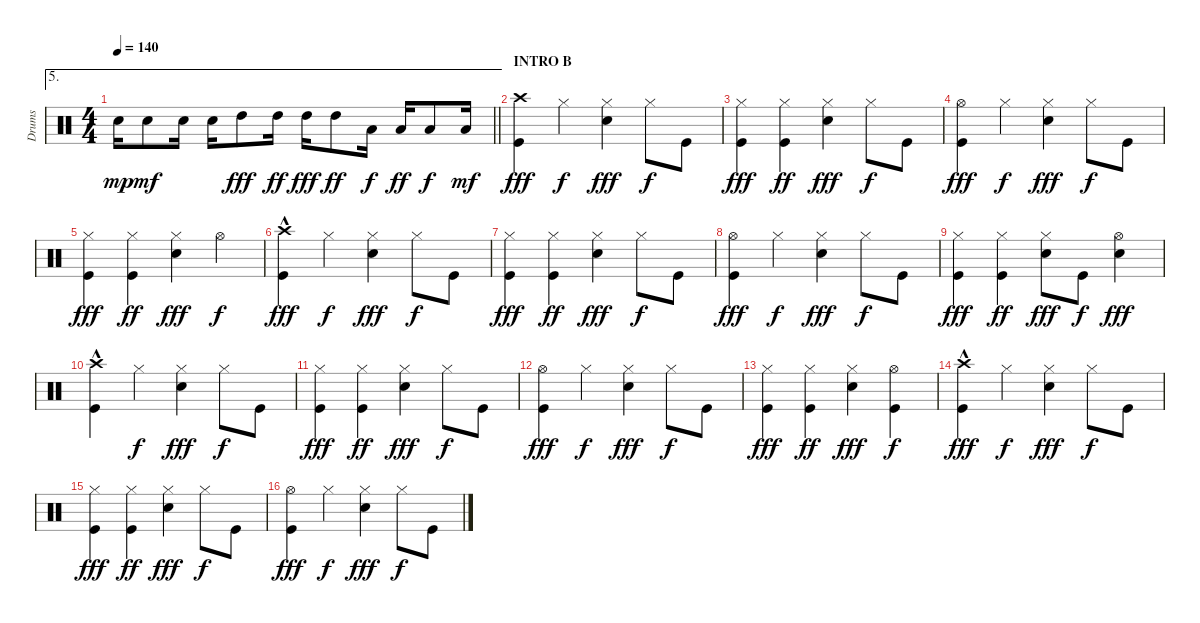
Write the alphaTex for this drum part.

\track ("Drums" "Drums") {instrument percussion}
\staff {score}
\articulation defaults
\ae 5
\ts (4 4)
\tempo 140
\clef neutral
\barLineRight lightlight
\ks c "Snare (hit) 2".16{dy mp} "Snare (hit) 2".8{dy mf} "Snare (hit) 2".16 "Snare (hit) 2".16 "High Tom (hit)".8{dy fff} "High Tom (hit)".16{dy ff} "High Tom (hit)".16{dy fff} "High Tom (hit)".8{dy ff} "Low Tom (hit)".16{dy f} "Low Tom (hit)".16{dy ff} "Low Floor Tom (hit)".8{dy f} "Low Floor Tom (hit)".16{dy mf}
|
\section ("" "INTRO B")
("Crash high (hit)" "Kick (hit)").4{dy fff} "Hi-Hat (closed)".4{dy f} ("Hi-Hat (closed)" "Snare (hit) 2").4{dy fff} "Hi-Hat (closed)".8{dy f} "Kick (hit)".8 |
("Hi-Hat (closed)" "Kick (hit)").4{dy fff} ("Hi-Hat (closed)" "Kick (hit)").4{dy ff} ("Hi-Hat (closed)" "Snare (hit) 2").4{dy fff} "Hi-Hat (closed)".8{dy f} "Kick (hit)".8 |
("Hi-Hat (open)" "Kick (hit)").4{dy fff} "Hi-Hat (closed)".4{dy f} ("Hi-Hat (closed)" "Snare (hit) 2").4{dy fff} "Hi-Hat (closed)".8{dy f} "Kick (hit)".8 |
("Hi-Hat (closed)" "Kick (hit)").4{dy fff} ("Hi-Hat (closed)" "Kick (hit)").4{dy ff} ("Hi-Hat (closed)" "Snare (hit) 2").4{dy fff} "Hi-Hat (open)".4{dy f} |
("Crash high (hit)" "Kick (hit)"{hac}).4{dy fff} "Hi-Hat (closed)".4{dy f} ("Hi-Hat (closed)" "Snare (hit) 2").4{dy fff} "Hi-Hat (closed)".8{dy f} "Kick (hit)".8 |
("Hi-Hat (closed)" "Kick (hit)").4{dy fff} ("Hi-Hat (closed)" "Kick (hit)").4{dy ff} ("Hi-Hat (closed)" "Snare (hit) 2").4{dy fff} "Hi-Hat (closed)".8{dy f} "Kick (hit)".8 |
("Hi-Hat (open)" "Kick (hit)").4{dy fff} "Hi-Hat (closed)".4{dy f} ("Hi-Hat (closed)" "Snare (hit) 2").4{dy fff} "Hi-Hat (closed)".8{dy f} "Kick (hit)".8 |
("Hi-Hat (closed)" "Kick (hit)").4{dy fff} ("Hi-Hat (closed)" "Kick (hit)").4{dy ff} ("Hi-Hat (closed)" "Snare (hit) 2").8{dy fff} "Kick (hit)".8{dy f} ("Hi-Hat (open)" "Snare (hit) 2").4{dy fff} |
("Crash high (hit)" "Kick (hit)"{hac}).4 "Hi-Hat (closed)".4{dy f} ("Hi-Hat (closed)" "Snare (hit) 2").4{dy fff} "Hi-Hat (closed)".8{dy f} "Kick (hit)".8 |
("Hi-Hat (closed)" "Kick (hit)").4{dy fff} ("Hi-Hat (closed)" "Kick (hit)").4{dy ff} ("Hi-Hat (closed)" "Snare (hit) 2").4{dy fff} "Hi-Hat (closed)".8{dy f} "Kick (hit)".8 |
("Hi-Hat (open)" "Kick (hit)").4{dy fff} "Hi-Hat (closed)".4{dy f} ("Hi-Hat (closed)" "Snare (hit) 2").4{dy fff} "Hi-Hat (closed)".8{dy f} "Kick (hit)".8 |
("Hi-Hat (closed)" "Kick (hit)").4{dy fff} ("Hi-Hat (closed)" "Kick (hit)").4{dy ff} ("Hi-Hat (closed)" "Snare (hit) 2").4{dy fff} ("Hi-Hat (open)" "Kick (hit)").4{dy f} |
("Crash high (hit)" "Kick (hit)"{hac}).4{dy fff} "Hi-Hat (closed)".4{dy f} ("Hi-Hat (closed)" "Snare (hit) 2").4{dy fff} "Hi-Hat (closed)".8{dy f} "Kick (hit)".8 |
("Hi-Hat (closed)" "Kick (hit)").4{dy fff} ("Hi-Hat (closed)" "Kick (hit)").4{dy ff} ("Hi-Hat (closed)" "Snare (hit) 2").4{dy fff} "Hi-Hat (closed)".8{dy f} "Kick (hit)".8 |
("Hi-Hat (open)" "Kick (hit)").4{dy fff} "Hi-Hat (closed)".4{dy f} ("Hi-Hat (closed)" "Snare (hit) 2").4{dy fff} "Hi-Hat (closed)".8{dy f} "Kick (hit)".8
